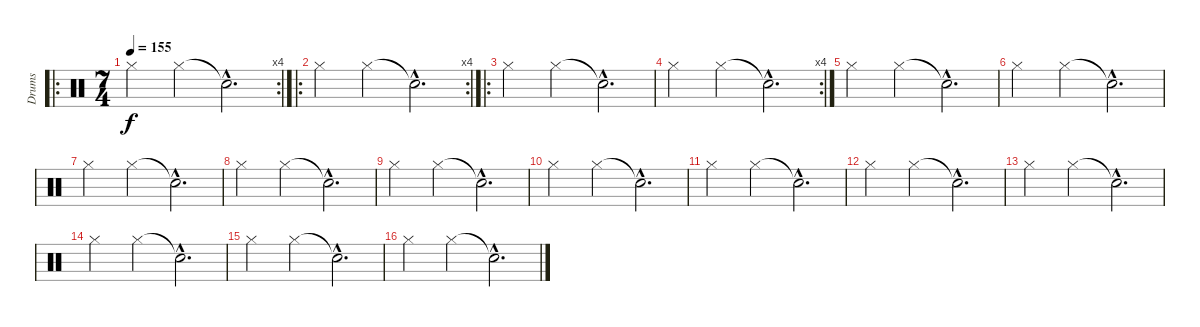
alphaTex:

\track ("Drums" "Drums") {instrument percussion}
\staff {score}
\articulation defaults
\ro
\rc 4
\ts (7 4)
\tempo 155
\clef neutral
\ks c "Hi-Hat (closed)".2{dy f} "Hi-Hat (closed)".2 "Snare (hit)"{hac t}.2{d}
|
\ro
\rc 4 "Hi-Hat (closed)".2 "Hi-Hat (closed)".2 "Snare (hit)"{hac t}.2{d}
|
\ro "Hi-Hat (closed)".2 "Hi-Hat (closed)".2 "Snare (hit)"{hac t}.2{d}
|
\rc 4 "Hi-Hat (closed)".2 "Hi-Hat (closed)".2 "Snare (hit)"{hac t}.2{d}
|
"Hi-Hat (closed)".2 "Hi-Hat (closed)".2 "Snare (hit)"{hac t}.2{d} |
"Hi-Hat (closed)".2 "Hi-Hat (closed)".2 "Snare (hit)"{hac t}.2{d} |
"Hi-Hat (closed)".2 "Hi-Hat (closed)".2 "Snare (hit)"{hac t}.2{d} |
"Hi-Hat (closed)".2 "Hi-Hat (closed)".2 "Snare (hit)"{hac t}.2{d} |
"Hi-Hat (closed)".2 "Hi-Hat (closed)".2 "Snare (hit)"{hac t}.2{d} |
"Hi-Hat (closed)".2 "Hi-Hat (closed)".2 "Snare (hit)"{hac t}.2{d} |
"Hi-Hat (closed)".2 "Hi-Hat (closed)".2 "Snare (hit)"{hac t}.2{d} |
"Hi-Hat (closed)".2 "Hi-Hat (closed)".2 "Snare (hit)"{hac t}.2{d} |
"Hi-Hat (closed)".2 "Hi-Hat (closed)".2 "Snare (hit)"{hac t}.2{d} |
"Hi-Hat (closed)".2 "Hi-Hat (closed)".2 "Snare (hit)"{hac t}.2{d} |
"Hi-Hat (closed)".2 "Hi-Hat (closed)".2 "Snare (hit)"{hac t}.2{d} |
"Hi-Hat (closed)".2 "Hi-Hat (closed)".2 "Snare (hit)"{hac t}.2{d}
